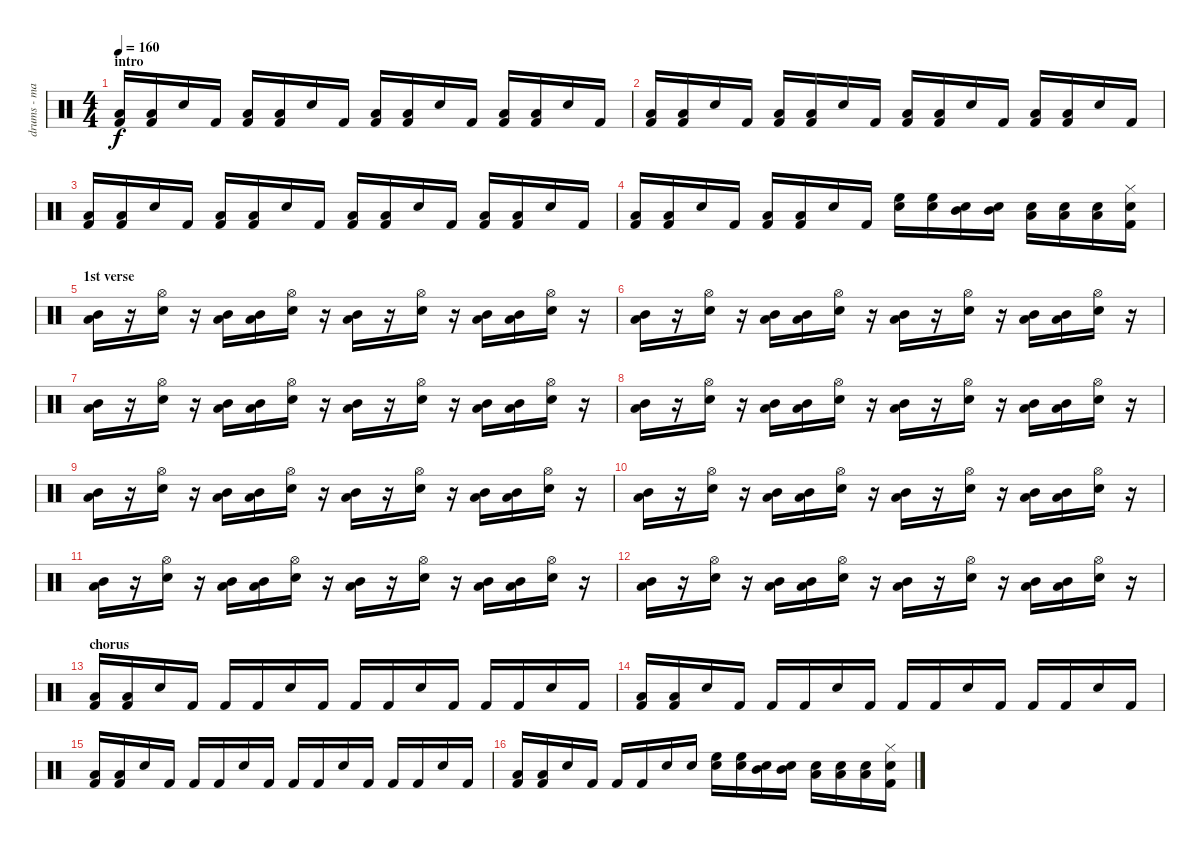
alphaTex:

\track ("drums - martin pelc" "drums - ma") {instrument percussion}
\staff {score}
\articulation defaults
\ts (4 4)
\section ("" "intro")
\tempo 160
\clef neutral
\ks c
("Low Floor Tom (hit)" "Kick (hit) 2").16{dy f} ("Low Floor Tom (hit)" "Kick (hit) 2").16 "Snare (hit) 2".16 "Kick (hit) 2".16 ("Low Floor Tom (hit)" "Kick (hit) 2").16 ("Low Floor Tom (hit)" "Kick (hit) 2").16 "Snare (hit) 2".16 "Kick (hit) 2".16 ("Low Floor Tom (hit)" "Kick (hit) 2").16 ("Low Floor Tom (hit)" "Kick (hit) 2").16 "Snare (hit) 2".16 "Kick (hit) 2".16 ("Low Floor Tom (hit)" "Kick (hit) 2").16 ("Low Floor Tom (hit)" "Kick (hit) 2").16 "Snare (hit) 2".16 "Kick (hit) 2".16 |
("Low Floor Tom (hit)" "Kick (hit) 2").16 ("Low Floor Tom (hit)" "Kick (hit) 2").16 "Snare (hit) 2".16 "Kick (hit) 2".16 ("Low Floor Tom (hit)" "Kick (hit) 2").16 ("Low Floor Tom (hit)" "Kick (hit) 2").16 "Snare (hit) 2".16 "Kick (hit) 2".16 ("Low Floor Tom (hit)" "Kick (hit) 2").16 ("Low Floor Tom (hit)" "Kick (hit) 2").16 "Snare (hit) 2".16 "Kick (hit) 2".16 ("Low Floor Tom (hit)" "Kick (hit) 2").16 ("Low Floor Tom (hit)" "Kick (hit) 2").16 "Snare (hit) 2".16 "Kick (hit) 2".16 |
("Low Floor Tom (hit)" "Kick (hit) 2").16 ("Low Floor Tom (hit)" "Kick (hit) 2").16 "Snare (hit) 2".16 "Kick (hit) 2".16 ("Low Floor Tom (hit)" "Kick (hit) 2").16 ("Low Floor Tom (hit)" "Kick (hit) 2").16 "Snare (hit) 2".16 "Kick (hit) 2".16 ("Low Floor Tom (hit)" "Kick (hit) 2").16 ("Low Floor Tom (hit)" "Kick (hit) 2").16 "Snare (hit) 2".16 "Kick (hit) 2".16 ("Low Floor Tom (hit)" "Kick (hit) 2").16 ("Low Floor Tom (hit)" "Kick (hit) 2").16 "Snare (hit) 2".16 "Kick (hit) 2".16 |
("Low Floor Tom (hit)" "Kick (hit) 2").16 ("Low Floor Tom (hit)" "Kick (hit) 2").16 "Snare (hit) 2".16 "Kick (hit) 2".16 ("Low Floor Tom (hit)" "Kick (hit) 2").16 ("Low Floor Tom (hit)" "Kick (hit) 2").16 "Snare (hit) 2".16 "Kick (hit) 2".16 ("Snare (hit) 2" "High Floor Tom (hit)").16 ("Snare (hit) 2" "High Floor Tom (hit)").16 ("Snare (hit) 2" "Mid Tom (hit)").16 ("Snare (hit) 2" "Mid Tom (hit)").16 ("Snare (hit) 2" "Low Tom (hit)").16 ("Snare (hit) 2" "Low Tom (hit)").16 ("Snare (hit) 2" "Low Floor Tom (hit)").16 ("Snare (hit) 2" "Kick (hit) 2" "Hi-Hat (closed)").16 |
\section ("" "1st verse")
("Low Tom (hit)" "Mid Tom (hit)").16 r.16 ("Snare (hit) 2" "Hi-Hat (open)").16 r.16 ("Mid Tom (hit)" "Low Tom (hit)").16 ("Mid Tom (hit)" "Low Tom (hit)").16 ("Snare (hit) 2" "Hi-Hat (open)").16 r.16 ("Mid Tom (hit)" "Low Tom (hit)").16 r.16 ("Snare (hit) 2" "Hi-Hat (open)").16 r.16 ("Low Tom (hit)" "Mid Tom (hit)").16 ("Mid Tom (hit)" "Low Tom (hit)").16 ("Snare (hit) 2" "Hi-Hat (open)").16 r.16 |
("Low Tom (hit)" "Mid Tom (hit)").16 r.16 ("Snare (hit) 2" "Hi-Hat (open)").16 r.16 ("Mid Tom (hit)" "Low Tom (hit)").16 ("Mid Tom (hit)" "Low Tom (hit)").16 ("Snare (hit) 2" "Hi-Hat (open)").16 r.16 ("Mid Tom (hit)" "Low Tom (hit)").16 r.16 ("Snare (hit) 2" "Hi-Hat (open)").16 r.16 ("Low Tom (hit)" "Mid Tom (hit)").16 ("Mid Tom (hit)" "Low Tom (hit)").16 ("Snare (hit) 2" "Hi-Hat (open)").16 r.16 |
("Low Tom (hit)" "Mid Tom (hit)").16 r.16 ("Snare (hit) 2" "Hi-Hat (open)").16 r.16 ("Mid Tom (hit)" "Low Tom (hit)").16 ("Mid Tom (hit)" "Low Tom (hit)").16 ("Snare (hit) 2" "Hi-Hat (open)").16 r.16 ("Mid Tom (hit)" "Low Tom (hit)").16 r.16 ("Snare (hit) 2" "Hi-Hat (open)").16 r.16 ("Low Tom (hit)" "Mid Tom (hit)").16 ("Mid Tom (hit)" "Low Tom (hit)").16 ("Snare (hit) 2" "Hi-Hat (open)").16 r.16 |
("Low Tom (hit)" "Mid Tom (hit)").16 r.16 ("Snare (hit) 2" "Hi-Hat (open)").16 r.16 ("Mid Tom (hit)" "Low Tom (hit)").16 ("Mid Tom (hit)" "Low Tom (hit)").16 ("Snare (hit) 2" "Hi-Hat (open)").16 r.16 ("Mid Tom (hit)" "Low Tom (hit)").16 r.16 ("Snare (hit) 2" "Hi-Hat (open)").16 r.16 ("Low Tom (hit)" "Mid Tom (hit)").16 ("Mid Tom (hit)" "Low Tom (hit)").16 ("Snare (hit) 2" "Hi-Hat (open)").16 r.16 |
("Low Tom (hit)" "Mid Tom (hit)").16 r.16 ("Snare (hit) 2" "Hi-Hat (open)").16 r.16 ("Mid Tom (hit)" "Low Tom (hit)").16 ("Mid Tom (hit)" "Low Tom (hit)").16 ("Snare (hit) 2" "Hi-Hat (open)").16 r.16 ("Mid Tom (hit)" "Low Tom (hit)").16 r.16 ("Snare (hit) 2" "Hi-Hat (open)").16 r.16 ("Low Tom (hit)" "Mid Tom (hit)").16 ("Mid Tom (hit)" "Low Tom (hit)").16 ("Snare (hit) 2" "Hi-Hat (open)").16 r.16 |
("Low Tom (hit)" "Mid Tom (hit)").16 r.16 ("Snare (hit) 2" "Hi-Hat (open)").16 r.16 ("Mid Tom (hit)" "Low Tom (hit)").16 ("Mid Tom (hit)" "Low Tom (hit)").16 ("Snare (hit) 2" "Hi-Hat (open)").16 r.16 ("Mid Tom (hit)" "Low Tom (hit)").16 r.16 ("Snare (hit) 2" "Hi-Hat (open)").16 r.16 ("Low Tom (hit)" "Mid Tom (hit)").16 ("Mid Tom (hit)" "Low Tom (hit)").16 ("Snare (hit) 2" "Hi-Hat (open)").16 r.16 |
("Low Tom (hit)" "Mid Tom (hit)").16 r.16 ("Snare (hit) 2" "Hi-Hat (open)").16 r.16 ("Mid Tom (hit)" "Low Tom (hit)").16 ("Mid Tom (hit)" "Low Tom (hit)").16 ("Snare (hit) 2" "Hi-Hat (open)").16 r.16 ("Mid Tom (hit)" "Low Tom (hit)").16 r.16 ("Snare (hit) 2" "Hi-Hat (open)").16 r.16 ("Low Tom (hit)" "Mid Tom (hit)").16 ("Mid Tom (hit)" "Low Tom (hit)").16 ("Snare (hit) 2" "Hi-Hat (open)").16 r.16 |
("Low Tom (hit)" "Mid Tom (hit)").16 r.16 ("Snare (hit) 2" "Hi-Hat (open)").16 r.16 ("Mid Tom (hit)" "Low Tom (hit)").16 ("Mid Tom (hit)" "Low Tom (hit)").16 ("Snare (hit) 2" "Hi-Hat (open)").16 r.16 ("Mid Tom (hit)" "Low Tom (hit)").16 r.16 ("Snare (hit) 2" "Hi-Hat (open)").16 r.16 ("Low Tom (hit)" "Mid Tom (hit)").16 ("Mid Tom (hit)" "Low Tom (hit)").16 ("Snare (hit) 2" "Hi-Hat (open)").16 r.16 |
\section ("" "chorus")
("Low Floor Tom (hit)" "Kick (hit) 2").16 ("Low Floor Tom (hit)" "Kick (hit) 2").16 "Snare (hit) 2".16 "Kick (hit) 2".16 "Kick (hit) 2".16 "Kick (hit) 2".16 "Snare (hit) 2".16 "Kick (hit) 2".16 "Kick (hit) 2".16 "Kick (hit) 2".16 "Snare (hit) 2".16 "Kick (hit) 2".16 "Kick (hit) 2".16 "Kick (hit) 2".16 "Snare (hit) 2".16 "Kick (hit) 2".16 |
("Low Floor Tom (hit)" "Kick (hit) 2").16 ("Low Floor Tom (hit)" "Kick (hit) 2").16 "Snare (hit) 2".16 "Kick (hit) 2".16 "Kick (hit) 2".16 "Kick (hit) 2".16 "Snare (hit) 2".16 "Kick (hit) 2".16 "Kick (hit) 2".16 "Kick (hit) 2".16 "Snare (hit) 2".16 "Kick (hit) 2".16 "Kick (hit) 2".16 "Kick (hit) 2".16 "Snare (hit) 2".16 "Kick (hit) 2".16 |
("Low Floor Tom (hit)" "Kick (hit) 2").16 ("Low Floor Tom (hit)" "Kick (hit) 2").16 "Snare (hit) 2".16 "Kick (hit) 2".16 "Kick (hit) 2".16 "Kick (hit) 2".16 "Snare (hit) 2".16 "Kick (hit) 2".16 "Kick (hit) 2".16 "Kick (hit) 2".16 "Snare (hit) 2".16 "Kick (hit) 2".16 "Kick (hit) 2".16 "Kick (hit) 2".16 "Snare (hit) 2".16 "Kick (hit) 2".16 |
("Low Floor Tom (hit)" "Kick (hit) 2").16 ("Low Floor Tom (hit)" "Kick (hit) 2").16 "Snare (hit) 2".16 "Kick (hit) 2".16 "Kick (hit) 2".16 "Kick (hit) 2".16 "Snare (hit) 2".16 "Snare (hit) 2".16 ("Snare (hit) 2" "High Floor Tom (hit)").16 ("Snare (hit) 2" "High Floor Tom (hit)").16 ("Snare (hit) 2" "Mid Tom (hit)").16 ("Snare (hit) 2" "Mid Tom (hit)").16 ("Snare (hit) 2" "Low Tom (hit)").16 ("Snare (hit) 2" "Low Tom (hit)").16 ("Snare (hit) 2" "Low Floor Tom (hit)").16 ("Snare (hit) 2" "Kick (hit) 2" "Hi-Hat (closed)").16
